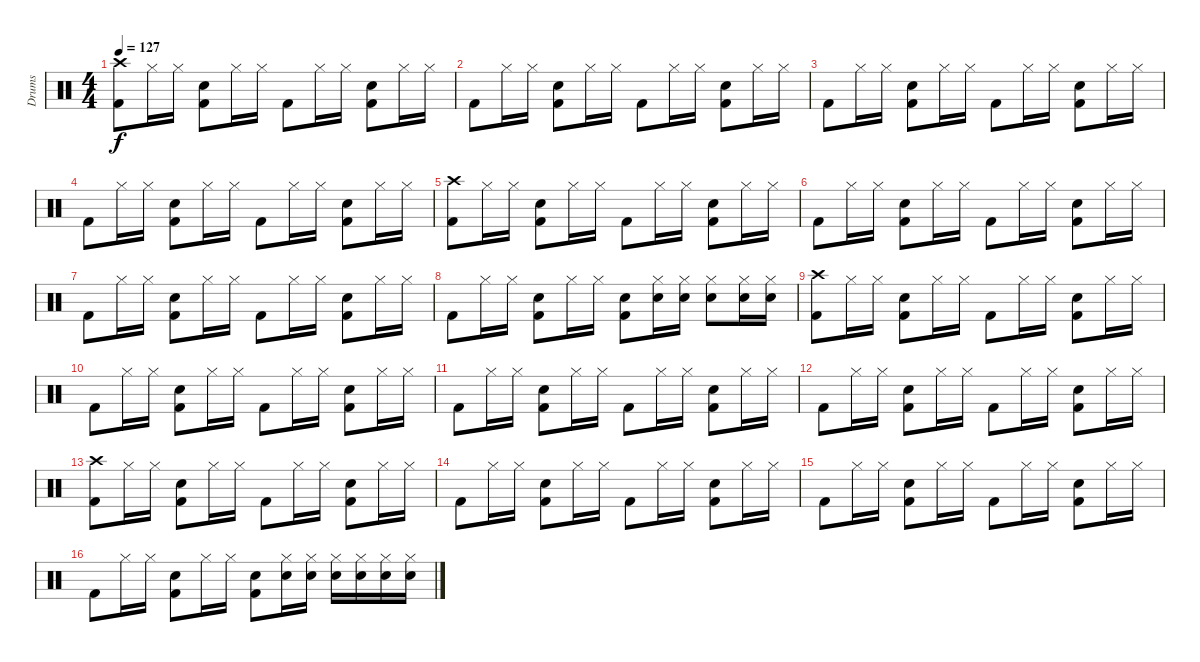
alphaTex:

\track ("Drums" "Drums") {instrument percussion}
\staff {score}
\articulation defaults
\ts (4 4)
\tempo 127
\clef neutral
\ks c
("Crash high (hit)" "Kick (hit) 2").8{dy f} "Hi-Hat (closed)".16 "Hi-Hat (closed)".16 ("Kick (hit) 2" "Snare (hit) 2").8 "Hi-Hat (closed)".16 "Hi-Hat (closed)".16 "Kick (hit) 2".8 "Hi-Hat (closed)".16 "Hi-Hat (closed)".16 ("Kick (hit) 2" "Snare (hit) 2").8 "Hi-Hat (closed)".16 "Hi-Hat (closed)".16 |
"Kick (hit) 2".8 "Hi-Hat (closed)".16 "Hi-Hat (closed)".16 ("Kick (hit) 2" "Snare (hit) 2").8 "Hi-Hat (closed)".16 "Hi-Hat (closed)".16 "Kick (hit) 2".8 "Hi-Hat (closed)".16 "Hi-Hat (closed)".16 ("Kick (hit) 2" "Snare (hit) 2").8 "Hi-Hat (closed)".16 "Hi-Hat (closed)".16 |
"Kick (hit) 2".8 "Hi-Hat (closed)".16 "Hi-Hat (closed)".16 ("Kick (hit) 2" "Snare (hit) 2").8 "Hi-Hat (closed)".16 "Hi-Hat (closed)".16 "Kick (hit) 2".8 "Hi-Hat (closed)".16 "Hi-Hat (closed)".16 ("Kick (hit) 2" "Snare (hit) 2").8 "Hi-Hat (closed)".16 "Hi-Hat (closed)".16 |
"Kick (hit) 2".8 "Hi-Hat (closed)".16 "Hi-Hat (closed)".16 ("Kick (hit) 2" "Snare (hit) 2").8 "Hi-Hat (closed)".16 "Hi-Hat (closed)".16 "Kick (hit) 2".8 "Hi-Hat (closed)".16 "Hi-Hat (closed)".16 ("Kick (hit) 2" "Snare (hit) 2").8 "Hi-Hat (closed)".16 "Hi-Hat (closed)".16 |
("Crash high (hit)" "Kick (hit) 2").8 "Hi-Hat (closed)".16 "Hi-Hat (closed)".16 ("Kick (hit) 2" "Snare (hit) 2").8 "Hi-Hat (closed)".16 "Hi-Hat (closed)".16 "Kick (hit) 2".8 "Hi-Hat (closed)".16 "Hi-Hat (closed)".16 ("Kick (hit) 2" "Snare (hit) 2").8 "Hi-Hat (closed)".16 "Hi-Hat (closed)".16 |
"Kick (hit) 2".8 "Hi-Hat (closed)".16 "Hi-Hat (closed)".16 ("Kick (hit) 2" "Snare (hit) 2").8 "Hi-Hat (closed)".16 "Hi-Hat (closed)".16 "Kick (hit) 2".8 "Hi-Hat (closed)".16 "Hi-Hat (closed)".16 ("Kick (hit) 2" "Snare (hit) 2").8 "Hi-Hat (closed)".16 "Hi-Hat (closed)".16 |
"Kick (hit) 2".8 "Hi-Hat (closed)".16 "Hi-Hat (closed)".16 ("Kick (hit) 2" "Snare (hit) 2").8 "Hi-Hat (closed)".16 "Hi-Hat (closed)".16 "Kick (hit) 2".8 "Hi-Hat (closed)".16 "Hi-Hat (closed)".16 ("Kick (hit) 2" "Snare (hit) 2").8 "Hi-Hat (closed)".16 "Hi-Hat (closed)".16 |
"Kick (hit) 2".8 "Hi-Hat (closed)".16 "Hi-Hat (closed)".16 ("Kick (hit) 2" "Snare (hit) 2").8 "Hi-Hat (closed)".16 "Hi-Hat (closed)".16 ("Kick (hit) 2" "Snare (hit) 2").8 ("Hi-Hat (closed)" "Snare (hit) 2").16 ("Hi-Hat (closed)" "Snare (hit) 2").16 ("Hi-Hat (closed)" "Snare (hit) 2").8 ("Hi-Hat (closed)" "Snare (hit) 2").16 ("Hi-Hat (closed)" "Snare (hit) 2").16 |
("Crash high (hit)" "Kick (hit) 2").8 "Hi-Hat (closed)".16 "Hi-Hat (closed)".16 ("Kick (hit) 2" "Snare (hit) 2").8 "Hi-Hat (closed)".16 "Hi-Hat (closed)".16 "Kick (hit) 2".8 "Hi-Hat (closed)".16 "Hi-Hat (closed)".16 ("Kick (hit) 2" "Snare (hit) 2").8 "Hi-Hat (closed)".16 "Hi-Hat (closed)".16 |
"Kick (hit) 2".8 "Hi-Hat (closed)".16 "Hi-Hat (closed)".16 ("Kick (hit) 2" "Snare (hit) 2").8 "Hi-Hat (closed)".16 "Hi-Hat (closed)".16 "Kick (hit) 2".8 "Hi-Hat (closed)".16 "Hi-Hat (closed)".16 ("Kick (hit) 2" "Snare (hit) 2").8 "Hi-Hat (closed)".16 "Hi-Hat (closed)".16 |
"Kick (hit) 2".8 "Hi-Hat (closed)".16 "Hi-Hat (closed)".16 ("Kick (hit) 2" "Snare (hit) 2").8 "Hi-Hat (closed)".16 "Hi-Hat (closed)".16 "Kick (hit) 2".8 "Hi-Hat (closed)".16 "Hi-Hat (closed)".16 ("Kick (hit) 2" "Snare (hit) 2").8 "Hi-Hat (closed)".16 "Hi-Hat (closed)".16 |
"Kick (hit) 2".8 "Hi-Hat (closed)".16 "Hi-Hat (closed)".16 ("Kick (hit) 2" "Snare (hit) 2").8 "Hi-Hat (closed)".16 "Hi-Hat (closed)".16 "Kick (hit) 2".8 "Hi-Hat (closed)".16 "Hi-Hat (closed)".16 ("Kick (hit) 2" "Snare (hit) 2").8 "Hi-Hat (closed)".16 "Hi-Hat (closed)".16 |
("Crash high (hit)" "Kick (hit) 2").8 "Hi-Hat (closed)".16 "Hi-Hat (closed)".16 ("Kick (hit) 2" "Snare (hit) 2").8 "Hi-Hat (closed)".16 "Hi-Hat (closed)".16 "Kick (hit) 2".8 "Hi-Hat (closed)".16 "Hi-Hat (closed)".16 ("Kick (hit) 2" "Snare (hit) 2").8 "Hi-Hat (closed)".16 "Hi-Hat (closed)".16 |
"Kick (hit) 2".8 "Hi-Hat (closed)".16 "Hi-Hat (closed)".16 ("Kick (hit) 2" "Snare (hit) 2").8 "Hi-Hat (closed)".16 "Hi-Hat (closed)".16 "Kick (hit) 2".8 "Hi-Hat (closed)".16 "Hi-Hat (closed)".16 ("Kick (hit) 2" "Snare (hit) 2").8 "Hi-Hat (closed)".16 "Hi-Hat (closed)".16 |
"Kick (hit) 2".8 "Hi-Hat (closed)".16 "Hi-Hat (closed)".16 ("Kick (hit) 2" "Snare (hit) 2").8 "Hi-Hat (closed)".16 "Hi-Hat (closed)".16 "Kick (hit) 2".8 "Hi-Hat (closed)".16 "Hi-Hat (closed)".16 ("Kick (hit) 2" "Snare (hit) 2").8 "Hi-Hat (closed)".16 "Hi-Hat (closed)".16 |
"Kick (hit) 2".8 "Hi-Hat (closed)".16 "Hi-Hat (closed)".16 ("Kick (hit) 2" "Snare (hit) 2").8 "Hi-Hat (closed)".16 "Hi-Hat (closed)".16 ("Kick (hit) 2" "Snare (hit) 2").8 ("Hi-Hat (closed)" "Snare (hit) 2").16 ("Hi-Hat (closed)" "Snare (hit) 2").16 ("Hi-Hat (closed)" "Snare (hit) 2").16 ("Hi-Hat (closed)" "Snare (hit) 2").16 ("Hi-Hat (closed)" "Snare (hit) 2").16 ("Hi-Hat (closed)" "Snare (hit) 2").16
